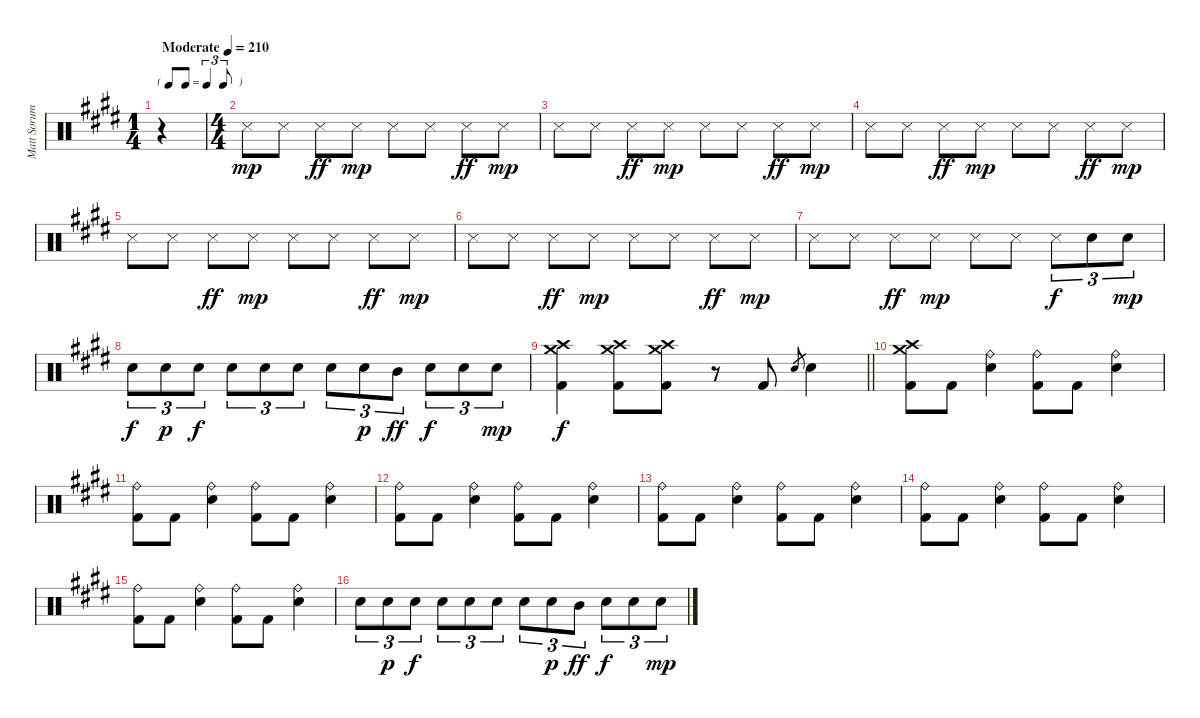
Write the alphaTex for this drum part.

\track ("Matt Sorum - Drums" "Matt Sorum") {instrument percussion}
\staff {score}
\articulation defaults
\ts (1 4)
\tf triplet8th
\tempo (210 "Moderate")
\clef neutral
\ks e
r.4{dy mp} |
\ts (4 4)
"Snare (side stick) 3".8 "Snare (side stick) 3".8 "Snare (side stick) 3".8{dy ff} "Snare (side stick) 3".8{dy mp} "Snare (side stick) 3".8 "Snare (side stick) 3".8 "Snare (side stick) 3".8{dy ff} "Snare (side stick) 3".8{dy mp} |
"Snare (side stick) 3".8 "Snare (side stick) 3".8 "Snare (side stick) 3".8{dy ff} "Snare (side stick) 3".8{dy mp} "Snare (side stick) 3".8 "Snare (side stick) 3".8 "Snare (side stick) 3".8{dy ff} "Snare (side stick) 3".8{dy mp} |
"Snare (side stick) 3".8 "Snare (side stick) 3".8 "Snare (side stick) 3".8{dy ff} "Snare (side stick) 3".8{dy mp} "Snare (side stick) 3".8 "Snare (side stick) 3".8 "Snare (side stick) 3".8{dy ff} "Snare (side stick) 3".8{dy mp} |
"Snare (side stick) 3".8 "Snare (side stick) 3".8 "Snare (side stick) 3".8{dy ff} "Snare (side stick) 3".8{dy mp} "Snare (side stick) 3".8 "Snare (side stick) 3".8 "Snare (side stick) 3".8{dy ff} "Snare (side stick) 3".8{dy mp} |
"Snare (side stick) 3".8 "Snare (side stick) 3".8 "Snare (side stick) 3".8{dy ff} "Snare (side stick) 3".8{dy mp} "Snare (side stick) 3".8 "Snare (side stick) 3".8 "Snare (side stick) 3".8{dy ff} "Snare (side stick) 3".8{dy mp} |
"Snare (side stick) 3".8 "Snare (side stick) 3".8 "Snare (side stick) 3".8{dy ff} "Snare (side stick) 3".8{dy mp} "Snare (side stick) 3".8 "Snare (side stick) 3".8 "Snare (side stick) 3".8{tu (3 2) dy f} "Snare (hit) 2".8{tu (3 2)} "Snare (hit) 2".8{tu (3 2) dy mp} |
"Snare (hit) 2".8{tu (3 2) dy f} "Snare (hit) 2".8{tu (3 2) dy p} "Snare (hit) 2".8{tu (3 2) dy f} "Snare (hit) 2".8{tu (3 2)} "Snare (hit) 2".8{tu (3 2)} "Snare (hit) 2".8{tu (3 2)} "Snare (hit) 2".8{tu (3 2)} "Snare (hit) 2".8{tu (3 2) dy p} "Mid Tom (hit)".8{tu (3 2) dy ff} "Snare (hit) 2".8{tu (3 2) dy f} "Snare (hit) 2".8{tu (3 2)} "Snare (hit) 2".8{tu (3 2) dy mp} |
\barLineRight lightlight
("Crash medium (hit)" "Crash high (hit)" "Kick (hit) 2").4{dy f} ("Crash high (hit)" "Crash medium (hit)" "Kick (hit) 2").8 ("Crash medium (hit)" "Crash high (hit)" "Kick (hit) 2").8 r.8 "Kick (hit) 2".8 "Snare (hit) 2".8{gr} "Snare (hit) 2".4 |
("Crash medium (hit)" "Crash high (hit)" "Kick (hit) 2").8 "Kick (hit) 2".8 ("Ride (bell)" "Snare (hit) 2").4 ("Ride (bell)" "Kick (hit) 2").8 "Kick (hit) 2".8 ("Ride (bell)" "Snare (hit) 2").4 |
("Ride (bell)" "Kick (hit) 2").8 "Kick (hit) 2".8 ("Ride (bell)" "Snare (hit) 2").4 ("Ride (bell)" "Kick (hit) 2").8 "Kick (hit) 2".8 ("Ride (bell)" "Snare (hit) 2").4 |
("Ride (bell)" "Kick (hit) 2").8 "Kick (hit) 2".8 ("Ride (bell)" "Snare (hit) 2").4 ("Ride (bell)" "Kick (hit) 2").8 "Kick (hit) 2".8 ("Ride (bell)" "Snare (hit) 2").4 |
("Ride (bell)" "Kick (hit) 2").8 "Kick (hit) 2".8 ("Ride (bell)" "Snare (hit) 2").4 ("Ride (bell)" "Kick (hit) 2").8 "Kick (hit) 2".8 ("Ride (bell)" "Snare (hit) 2").4 |
("Ride (bell)" "Kick (hit) 2").8 "Kick (hit) 2".8 ("Ride (bell)" "Snare (hit) 2").4 ("Ride (bell)" "Kick (hit) 2").8 "Kick (hit) 2".8 ("Ride (bell)" "Snare (hit) 2").4 |
("Ride (bell)" "Kick (hit) 2").8 "Kick (hit) 2".8 ("Ride (bell)" "Snare (hit) 2").4 ("Ride (bell)" "Kick (hit) 2").8 "Kick (hit) 2".8 ("Ride (bell)" "Snare (hit) 2").4 |
"Snare (hit) 2".8{tu (3 2)} "Snare (hit) 2".8{tu (3 2) dy p} "Snare (hit) 2".8{tu (3 2) dy f} "Snare (hit) 2".8{tu (3 2)} "Snare (hit) 2".8{tu (3 2)} "Snare (hit) 2".8{tu (3 2)} "Snare (hit) 2".8{tu (3 2)} "Snare (hit) 2".8{tu (3 2) dy p} "Mid Tom (hit)".8{tu (3 2) dy ff} "Snare (hit) 2".8{tu (3 2) dy f} "Snare (hit) 2".8{tu (3 2)} "Snare (hit) 2".8{tu (3 2) dy mp}
